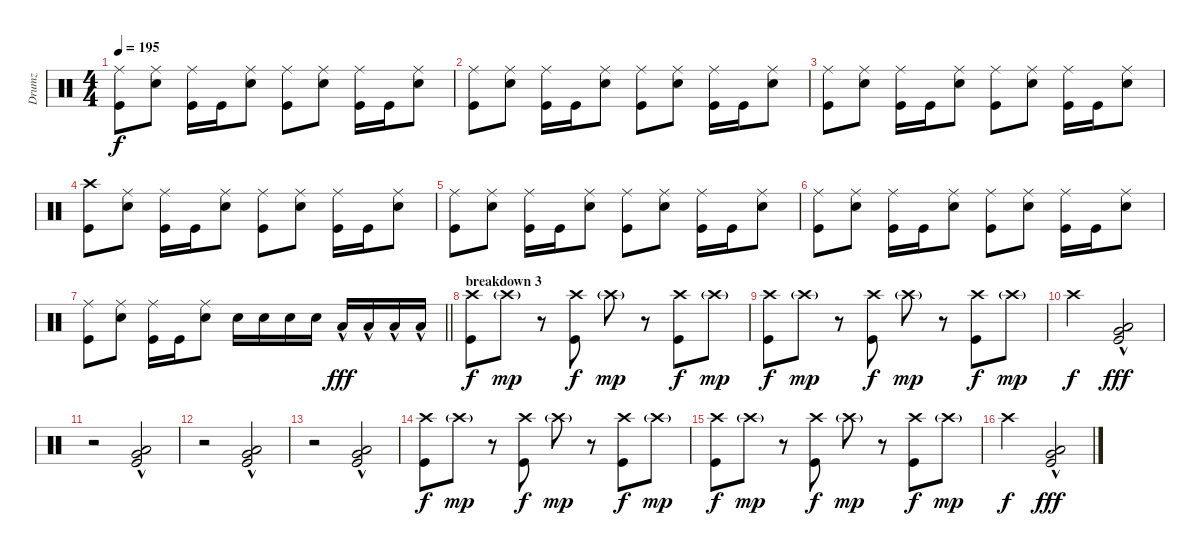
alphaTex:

\track ("Drumz" "Drumz") {instrument percussion}
\staff {score}
\articulation defaults
\ts (4 4)
\tempo 195
\clef neutral
\ks c
("Ride (middle)" "Kick (hit)").8{dy f} ("Ride (middle)" "Electric Snare (hit)").8 ("Ride (middle)" "Kick (hit)").16 "Kick (hit)".16 ("Ride (middle)" "Electric Snare (hit)").8 ("Ride (middle)" "Kick (hit)").8 ("Ride (middle)" "Electric Snare (hit)").8 ("Ride (middle)" "Kick (hit)").16 "Kick (hit)".16 ("Ride (middle)" "Electric Snare (hit)").8 |
("Ride (middle)" "Kick (hit)").8 ("Ride (middle)" "Electric Snare (hit)").8 ("Ride (middle)" "Kick (hit)").16 "Kick (hit)".16 ("Ride (middle)" "Electric Snare (hit)").8 ("Ride (middle)" "Kick (hit)").8 ("Ride (middle)" "Electric Snare (hit)").8 ("Ride (middle)" "Kick (hit)").16 "Kick (hit)".16 ("Ride (middle)" "Electric Snare (hit)").8 |
("Ride (middle)" "Kick (hit)").8 ("Ride (middle)" "Electric Snare (hit)").8 ("Ride (middle)" "Kick (hit)").16 "Kick (hit)".16 ("Ride (middle)" "Electric Snare (hit)").8 ("Ride (middle)" "Kick (hit)").8 ("Ride (middle)" "Electric Snare (hit)").8 ("Ride (middle)" "Kick (hit)").16 "Kick (hit)".16 ("Ride (middle)" "Electric Snare (hit)").8 |
("Crash high (hit)" "Kick (hit)").8 ("Ride (middle)" "Electric Snare (hit)").8 ("Ride (middle)" "Kick (hit)").16 "Kick (hit)".16 ("Ride (middle)" "Electric Snare (hit)").8 ("Ride (middle)" "Kick (hit)").8 ("Ride (middle)" "Electric Snare (hit)").8 ("Ride (middle)" "Kick (hit)").16 "Kick (hit)".16 ("Ride (middle)" "Electric Snare (hit)").8 |
("Ride (middle)" "Kick (hit)").8 ("Ride (middle)" "Electric Snare (hit)").8 ("Ride (middle)" "Kick (hit)").16 "Kick (hit)".16 ("Ride (middle)" "Electric Snare (hit)").8 ("Ride (middle)" "Kick (hit)").8 ("Ride (middle)" "Electric Snare (hit)").8 ("Ride (middle)" "Kick (hit)").16 "Kick (hit)".16 ("Ride (middle)" "Electric Snare (hit)").8 |
("Ride (middle)" "Kick (hit)").8 ("Ride (middle)" "Electric Snare (hit)").8 ("Ride (middle)" "Kick (hit)").16 "Kick (hit)".16 ("Ride (middle)" "Electric Snare (hit)").8 ("Ride (middle)" "Kick (hit)").8 ("Ride (middle)" "Electric Snare (hit)").8 ("Ride (middle)" "Kick (hit)").16 "Kick (hit)".16 ("Ride (middle)" "Electric Snare (hit)").8 |
\barLineRight lightlight
("Ride (middle)" "Kick (hit)").8 ("Ride (middle)" "Electric Snare (hit)").8 ("Ride (middle)" "Kick (hit)").16 "Kick (hit)".16 ("Ride (middle)" "Electric Snare (hit)").8 "Electric Snare (hit)".16 "Electric Snare (hit)".16 "Electric Snare (hit)".16 "Electric Snare (hit)".16 "Low Tom (hit)"{hac}.16{dy fff} "Low Tom (hit)"{hac}.16 "Low Tom (hit)"{hac}.16 "Low Tom (hit)"{hac}.16 |
\section ("" "breakdown 3")
("Crash high (hit)" "Kick (hit)").8{dy f} "Crash high (hit)"{g}.8{dy mp} r.8 ("Crash high (hit)" "Kick (hit)").8{dy f} "Crash high (hit)"{g}.8{dy mp} r.8 ("Crash high (hit)" "Kick (hit)").8{dy f} "Crash high (hit)"{g}.8{dy mp} |
("Crash high (hit)" "Kick (hit)").8{dy f} "Crash high (hit)"{g}.8{dy mp} r.8 ("Crash high (hit)" "Kick (hit)").8{dy f} "Crash high (hit)"{g}.8{dy mp} r.8 ("Crash high (hit)" "Kick (hit)").8{dy f} "Crash high (hit)"{g}.8{dy mp} |
"Crash high (hit)".2{dy f} ("Very Low Tom (hit)"{hac} "Low Tom (hit)"{hac} "Kick (hit)").2{dy fff} |
r.2 ("Very Low Tom (hit)"{hac} "Low Tom (hit)"{hac} "Kick (hit)").2 |
r.2 ("Very Low Tom (hit)"{hac} "Low Tom (hit)"{hac} "Kick (hit)").2 |
r.2 ("Very Low Tom (hit)"{hac} "Low Tom (hit)"{hac} "Kick (hit)").2 |
("Crash high (hit)" "Kick (hit)").8{dy f} "Crash high (hit)"{g}.8{dy mp} r.8 ("Crash high (hit)" "Kick (hit)").8{dy f} "Crash high (hit)"{g}.8{dy mp} r.8 ("Crash high (hit)" "Kick (hit)").8{dy f} "Crash high (hit)"{g}.8{dy mp} |
("Crash high (hit)" "Kick (hit)").8{dy f} "Crash high (hit)"{g}.8{dy mp} r.8 ("Crash high (hit)" "Kick (hit)").8{dy f} "Crash high (hit)"{g}.8{dy mp} r.8 ("Crash high (hit)" "Kick (hit)").8{dy f} "Crash high (hit)"{g}.8{dy mp} |
"Crash high (hit)".2{dy f} ("Very Low Tom (hit)"{hac} "Low Tom (hit)"{hac} "Kick (hit)").2{dy fff}
